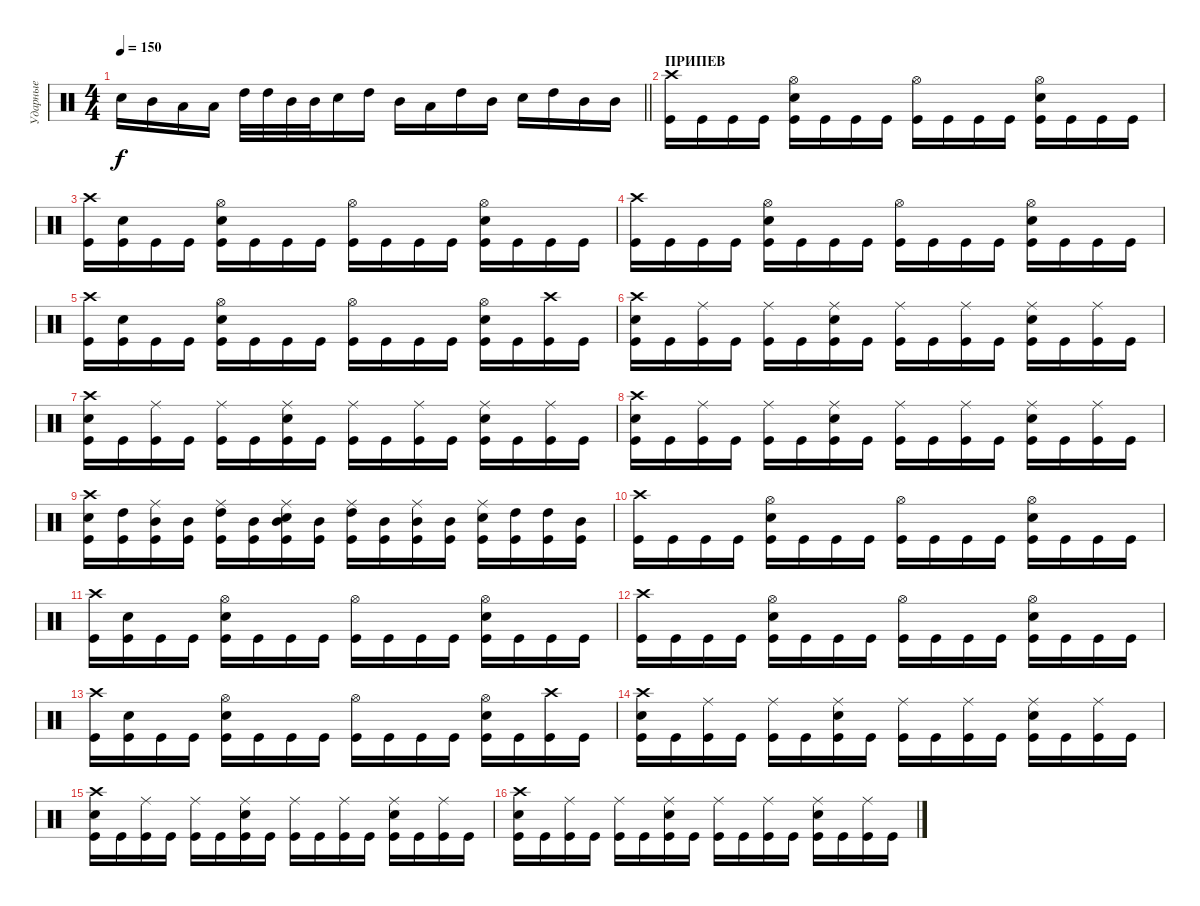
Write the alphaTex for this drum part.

\track ("Ударные" "Ударные") {instrument percussion}
\staff {score}
\articulation defaults
\ts (4 4)
\tempo 150
\clef neutral
\barLineRight lightlight
\ks c "Snare (hit) 2".16{dy f} "Mid Tom (hit)".16 "Low Tom (hit)".16 "Low Tom (hit)".16 "High Tom (hit)".32 "High Tom (hit)".32 "Mid Tom (hit)".32 "Mid Tom (hit)".32 "Snare (hit) 2".16 "High Tom (hit)".16 "Mid Tom (hit)".16 "Low Tom (hit)".16 "High Tom (hit)".16 "Mid Tom (hit)".16 "Snare (hit) 2".16 "High Tom (hit)".16 "Mid Tom (hit)".16 "Mid Tom (hit)".16
|
\section ("" "ПРИПЕВ")
("Kick (hit)" "Crash high (hit)").16 "Kick (hit)".16 "Kick (hit)".16 "Kick (hit)".16 ("Kick (hit)" "Hi-Hat (open)" "Snare (hit) 2").16 "Kick (hit)".16 "Kick (hit)".16 "Kick (hit)".16 ("Kick (hit)" "Hi-Hat (open)").16 "Kick (hit)".16 "Kick (hit)".16 "Kick (hit)".16 ("Kick (hit)" "Hi-Hat (open)" "Snare (hit) 2").16 "Kick (hit)".16 "Kick (hit)".16 "Kick (hit)".16 |
("Kick (hit)" "Crash high (hit)").16 ("Kick (hit)" "Snare (hit) 2").16 "Kick (hit)".16 "Kick (hit)".16 ("Kick (hit)" "Hi-Hat (open)" "Snare (hit) 2").16 "Kick (hit)".16 "Kick (hit)".16 "Kick (hit)".16 ("Kick (hit)" "Hi-Hat (open)").16 "Kick (hit)".16 "Kick (hit)".16 "Kick (hit)".16 ("Kick (hit)" "Hi-Hat (open)" "Snare (hit) 2").16 "Kick (hit)".16 "Kick (hit)".16 "Kick (hit)".16 |
("Kick (hit)" "Crash high (hit)").16 "Kick (hit)".16 "Kick (hit)".16 "Kick (hit)".16 ("Kick (hit)" "Hi-Hat (open)" "Snare (hit) 2").16 "Kick (hit)".16 "Kick (hit)".16 "Kick (hit)".16 ("Kick (hit)" "Hi-Hat (open)").16 "Kick (hit)".16 "Kick (hit)".16 "Kick (hit)".16 ("Kick (hit)" "Hi-Hat (open)" "Snare (hit) 2").16 "Kick (hit)".16 "Kick (hit)".16 "Kick (hit)".16 |
("Kick (hit)" "Crash high (hit)").16 ("Kick (hit)" "Snare (hit) 2").16 "Kick (hit)".16 "Kick (hit)".16 ("Kick (hit)" "Hi-Hat (open)" "Snare (hit) 2").16 "Kick (hit)".16 "Kick (hit)".16 "Kick (hit)".16 ("Kick (hit)" "Hi-Hat (open)").16 "Kick (hit)".16 "Kick (hit)".16 "Kick (hit)".16 ("Kick (hit)" "Hi-Hat (open)" "Snare (hit) 2").16 "Kick (hit)".16 ("Kick (hit)" "Crash high (hit)").16 "Kick (hit)".16 |
("Kick (hit)" "Crash high (hit)" "Snare (hit) 2").16 "Kick (hit)".16 ("Kick (hit)" "Ride (middle)").16 "Kick (hit)".16 ("Kick (hit)" "Ride (middle)").16 "Kick (hit)".16 ("Kick (hit)" "Snare (hit) 2" "Ride (middle)").16 "Kick (hit)".16 ("Kick (hit)" "Ride (middle)").16 "Kick (hit)".16 ("Kick (hit)" "Ride (middle)").16 "Kick (hit)".16 ("Kick (hit)" "Ride (middle)" "Snare (hit) 2").16 "Kick (hit)".16 ("Kick (hit)" "Ride (middle)").16 "Kick (hit)".16 |
("Kick (hit)" "Crash high (hit)" "Snare (hit) 2").16 "Kick (hit)".16 ("Kick (hit)" "Ride (middle)").16 "Kick (hit)".16 ("Kick (hit)" "Ride (middle)").16 "Kick (hit)".16 ("Kick (hit)" "Snare (hit) 2" "Ride (middle)").16 "Kick (hit)".16 ("Kick (hit)" "Ride (middle)").16 "Kick (hit)".16 ("Kick (hit)" "Ride (middle)").16 "Kick (hit)".16 ("Kick (hit)" "Ride (middle)" "Snare (hit) 2").16 "Kick (hit)".16 ("Kick (hit)" "Ride (middle)").16 "Kick (hit)".16 |
("Kick (hit)" "Crash high (hit)" "Snare (hit) 2").16 "Kick (hit)".16 ("Kick (hit)" "Ride (middle)").16 "Kick (hit)".16 ("Kick (hit)" "Ride (middle)").16 "Kick (hit)".16 ("Kick (hit)" "Snare (hit) 2" "Ride (middle)").16 "Kick (hit)".16 ("Kick (hit)" "Ride (middle)").16 "Kick (hit)".16 ("Kick (hit)" "Ride (middle)").16 "Kick (hit)".16 ("Kick (hit)" "Ride (middle)" "Snare (hit) 2").16 "Kick (hit)".16 ("Kick (hit)" "Ride (middle)").16 "Kick (hit)".16 |
("Kick (hit)" "Crash high (hit)" "Snare (hit) 2").16 ("Kick (hit)" "High Tom (hit)").16 ("Kick (hit)" "Ride (middle)" "Mid Tom (hit)").16 ("Kick (hit)" "Mid Tom (hit)").16 ("Kick (hit)" "Ride (middle)" "High Tom (hit)").16 ("Kick (hit)" "Mid Tom (hit)").16 ("Kick (hit)" "Snare (hit) 2" "Ride (middle)" "Mid Tom (hit)").16 ("Kick (hit)" "Mid Tom (hit)").16 ("Kick (hit)" "Ride (middle)" "High Tom (hit)").16 ("Kick (hit)" "Mid Tom (hit)").16 ("Kick (hit)" "Ride (middle)" "Mid Tom (hit)").16 ("Kick (hit)" "Mid Tom (hit)").16 ("Kick (hit)" "Ride (middle)" "Snare (hit) 2").16 ("Kick (hit)" "High Tom (hit)").16 ("Kick (hit)" "High Tom (hit)").16 ("Kick (hit)" "Mid Tom (hit)").16 |
("Kick (hit)" "Crash high (hit)").16 "Kick (hit)".16 "Kick (hit)".16 "Kick (hit)".16 ("Kick (hit)" "Hi-Hat (open)" "Snare (hit) 2").16 "Kick (hit)".16 "Kick (hit)".16 "Kick (hit)".16 ("Kick (hit)" "Hi-Hat (open)").16 "Kick (hit)".16 "Kick (hit)".16 "Kick (hit)".16 ("Kick (hit)" "Hi-Hat (open)" "Snare (hit) 2").16 "Kick (hit)".16 "Kick (hit)".16 "Kick (hit)".16 |
("Kick (hit)" "Crash high (hit)").16 ("Kick (hit)" "Snare (hit) 2").16 "Kick (hit)".16 "Kick (hit)".16 ("Kick (hit)" "Hi-Hat (open)" "Snare (hit) 2").16 "Kick (hit)".16 "Kick (hit)".16 "Kick (hit)".16 ("Kick (hit)" "Hi-Hat (open)").16 "Kick (hit)".16 "Kick (hit)".16 "Kick (hit)".16 ("Kick (hit)" "Hi-Hat (open)" "Snare (hit) 2").16 "Kick (hit)".16 "Kick (hit)".16 "Kick (hit)".16 |
("Kick (hit)" "Crash high (hit)").16 "Kick (hit)".16 "Kick (hit)".16 "Kick (hit)".16 ("Kick (hit)" "Hi-Hat (open)" "Snare (hit) 2").16 "Kick (hit)".16 "Kick (hit)".16 "Kick (hit)".16 ("Kick (hit)" "Hi-Hat (open)").16 "Kick (hit)".16 "Kick (hit)".16 "Kick (hit)".16 ("Kick (hit)" "Hi-Hat (open)" "Snare (hit) 2").16 "Kick (hit)".16 "Kick (hit)".16 "Kick (hit)".16 |
("Kick (hit)" "Crash high (hit)").16 ("Kick (hit)" "Snare (hit) 2").16 "Kick (hit)".16 "Kick (hit)".16 ("Kick (hit)" "Hi-Hat (open)" "Snare (hit) 2").16 "Kick (hit)".16 "Kick (hit)".16 "Kick (hit)".16 ("Kick (hit)" "Hi-Hat (open)").16 "Kick (hit)".16 "Kick (hit)".16 "Kick (hit)".16 ("Kick (hit)" "Hi-Hat (open)" "Snare (hit) 2").16 "Kick (hit)".16 ("Kick (hit)" "Crash high (hit)").16 "Kick (hit)".16 |
("Kick (hit)" "Crash high (hit)" "Snare (hit) 2").16 "Kick (hit)".16 ("Kick (hit)" "Ride (middle)").16 "Kick (hit)".16 ("Kick (hit)" "Ride (middle)").16 "Kick (hit)".16 ("Kick (hit)" "Snare (hit) 2" "Ride (middle)").16 "Kick (hit)".16 ("Kick (hit)" "Ride (middle)").16 "Kick (hit)".16 ("Kick (hit)" "Ride (middle)").16 "Kick (hit)".16 ("Kick (hit)" "Ride (middle)" "Snare (hit) 2").16 "Kick (hit)".16 ("Kick (hit)" "Ride (middle)").16 "Kick (hit)".16 |
("Kick (hit)" "Crash high (hit)" "Snare (hit) 2").16 "Kick (hit)".16 ("Kick (hit)" "Ride (middle)").16 "Kick (hit)".16 ("Kick (hit)" "Ride (middle)").16 "Kick (hit)".16 ("Kick (hit)" "Snare (hit) 2" "Ride (middle)").16 "Kick (hit)".16 ("Kick (hit)" "Ride (middle)").16 "Kick (hit)".16 ("Kick (hit)" "Ride (middle)").16 "Kick (hit)".16 ("Kick (hit)" "Ride (middle)" "Snare (hit) 2").16 "Kick (hit)".16 ("Kick (hit)" "Ride (middle)").16 "Kick (hit)".16 |
("Kick (hit)" "Crash high (hit)" "Snare (hit) 2").16 "Kick (hit)".16 ("Kick (hit)" "Ride (middle)").16 "Kick (hit)".16 ("Kick (hit)" "Ride (middle)").16 "Kick (hit)".16 ("Kick (hit)" "Snare (hit) 2" "Ride (middle)").16 "Kick (hit)".16 ("Kick (hit)" "Ride (middle)").16 "Kick (hit)".16 ("Kick (hit)" "Ride (middle)").16 "Kick (hit)".16 ("Kick (hit)" "Ride (middle)" "Snare (hit) 2").16 "Kick (hit)".16 ("Kick (hit)" "Ride (middle)").16 "Kick (hit)".16
